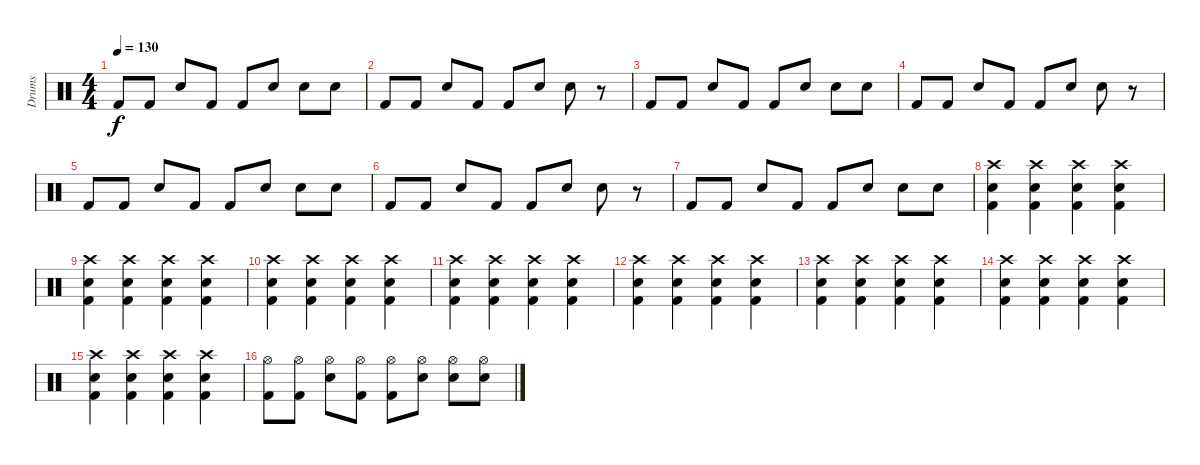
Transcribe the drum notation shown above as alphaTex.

\track ("Drums" "Drums") {instrument percussion}
\staff {score}
\articulation defaults
\ts (4 4)
\tempo 130
\clef neutral
\ks c "Kick (hit) 2".8{dy f} "Kick (hit) 2".8 "Snare (hit) 2".8 "Kick (hit) 2".8 "Kick (hit) 2".8 "Snare (hit) 2".8 "Snare (hit) 2".8 "Snare (hit) 2".8
|
"Kick (hit) 2".8 "Kick (hit) 2".8 "Snare (hit) 2".8 "Kick (hit) 2".8 "Kick (hit) 2".8 "Snare (hit) 2".8 "Snare (hit) 2".8 r.8 |
"Kick (hit) 2".8 "Kick (hit) 2".8 "Snare (hit) 2".8 "Kick (hit) 2".8 "Kick (hit) 2".8 "Snare (hit) 2".8 "Snare (hit) 2".8 "Snare (hit) 2".8 |
"Kick (hit) 2".8 "Kick (hit) 2".8 "Snare (hit) 2".8 "Kick (hit) 2".8 "Kick (hit) 2".8 "Snare (hit) 2".8 "Snare (hit) 2".8 r.8 |
"Kick (hit) 2".8 "Kick (hit) 2".8 "Snare (hit) 2".8 "Kick (hit) 2".8 "Kick (hit) 2".8 "Snare (hit) 2".8 "Snare (hit) 2".8 "Snare (hit) 2".8 |
"Kick (hit) 2".8 "Kick (hit) 2".8 "Snare (hit) 2".8 "Kick (hit) 2".8 "Kick (hit) 2".8 "Snare (hit) 2".8 "Snare (hit) 2".8 r.8 |
"Kick (hit) 2".8 "Kick (hit) 2".8 "Snare (hit) 2".8 "Kick (hit) 2".8 "Kick (hit) 2".8 "Snare (hit) 2".8 "Snare (hit) 2".8 "Snare (hit) 2".8 |
("Crash high (hit)" "Kick (hit) 2" "Snare (hit) 2").4 ("Crash high (hit)" "Kick (hit) 2" "Snare (hit) 2").4 ("Crash high (hit)" "Kick (hit) 2" "Snare (hit) 2").4 ("Crash high (hit)" "Kick (hit) 2" "Snare (hit) 2").4 |
("Crash high (hit)" "Kick (hit) 2" "Snare (hit) 2").4 ("Crash high (hit)" "Kick (hit) 2" "Snare (hit) 2").4 ("Crash high (hit)" "Kick (hit) 2" "Snare (hit) 2").4 ("Crash high (hit)" "Kick (hit) 2" "Snare (hit) 2").4 |
("Crash high (hit)" "Kick (hit) 2" "Snare (hit) 2").4 ("Crash high (hit)" "Kick (hit) 2" "Snare (hit) 2").4 ("Crash high (hit)" "Kick (hit) 2" "Snare (hit) 2").4 ("Crash high (hit)" "Kick (hit) 2" "Snare (hit) 2").4 |
("Crash high (hit)" "Kick (hit) 2" "Snare (hit) 2").4 ("Crash high (hit)" "Kick (hit) 2" "Snare (hit) 2").4 ("Crash high (hit)" "Kick (hit) 2" "Snare (hit) 2").4 ("Crash high (hit)" "Kick (hit) 2" "Snare (hit) 2").4 |
("Crash high (hit)" "Kick (hit) 2" "Snare (hit) 2").4 ("Crash high (hit)" "Kick (hit) 2" "Snare (hit) 2").4 ("Crash high (hit)" "Kick (hit) 2" "Snare (hit) 2").4 ("Crash high (hit)" "Kick (hit) 2" "Snare (hit) 2").4 |
("Crash high (hit)" "Kick (hit) 2" "Snare (hit) 2").4 ("Crash high (hit)" "Kick (hit) 2" "Snare (hit) 2").4 ("Crash high (hit)" "Kick (hit) 2" "Snare (hit) 2").4 ("Crash high (hit)" "Kick (hit) 2" "Snare (hit) 2").4 |
("Crash high (hit)" "Kick (hit) 2" "Snare (hit) 2").4 ("Crash high (hit)" "Kick (hit) 2" "Snare (hit) 2").4 ("Crash high (hit)" "Kick (hit) 2" "Snare (hit) 2").4 ("Crash high (hit)" "Kick (hit) 2" "Snare (hit) 2").4 |
("Crash high (hit)" "Kick (hit) 2" "Snare (hit) 2").4 ("Crash high (hit)" "Kick (hit) 2" "Snare (hit) 2").4 ("Crash high (hit)" "Kick (hit) 2" "Snare (hit) 2").4 ("Crash high (hit)" "Kick (hit) 2" "Snare (hit) 2").4 |
("Hi-Hat (open)" "Kick (hit) 2").8 ("Hi-Hat (open)" "Kick (hit) 2").8 ("Hi-Hat (open)" "Snare (hit) 2").8 ("Hi-Hat (open)" "Kick (hit) 2").8 ("Hi-Hat (open)" "Kick (hit) 2").8 ("Hi-Hat (open)" "Snare (hit) 2").8 ("Hi-Hat (open)" "Snare (hit) 2").8 ("Hi-Hat (open)" "Snare (hit) 2").8
